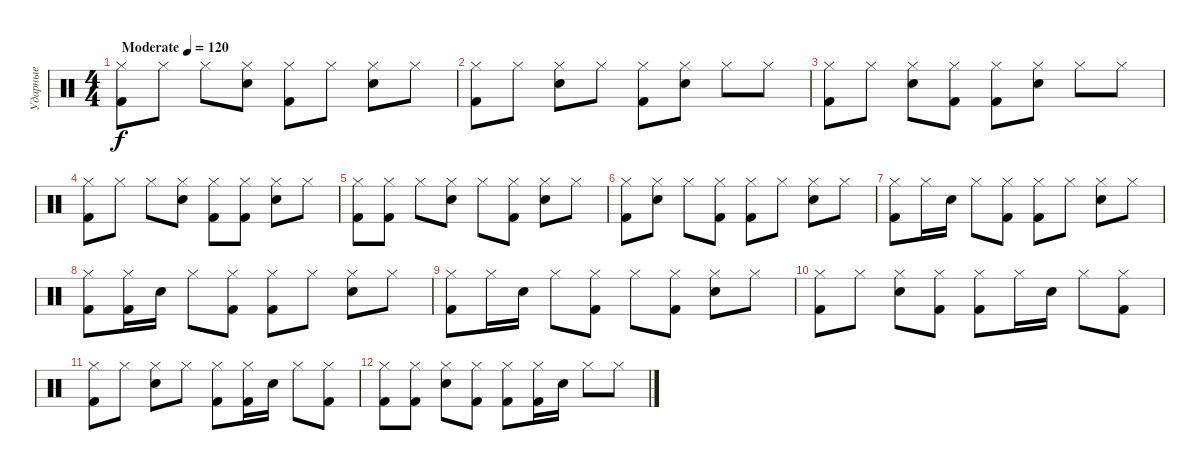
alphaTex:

\track ("Ударные" "Ударные") {instrument percussion}
\staff {score}
\articulation defaults
\ts (4 4)
\tempo (120 "Moderate")
\clef neutral
\ks c
("Hi-Hat (closed)" "Kick (hit) 2").8{dy f} "Hi-Hat (closed)".8 "Hi-Hat (closed)".8 ("Hi-Hat (closed)" "Electric Snare (hit)").8 ("Hi-Hat (closed)" "Kick (hit) 2").8 "Hi-Hat (closed)".8 ("Hi-Hat (closed)" "Electric Snare (hit)").8 "Hi-Hat (closed)".8 |
("Hi-Hat (closed)" "Kick (hit) 2").8 "Hi-Hat (closed)".8 ("Hi-Hat (closed)" "Electric Snare (hit)").8 "Hi-Hat (closed)".8 ("Hi-Hat (closed)" "Kick (hit) 2").8 ("Hi-Hat (closed)" "Electric Snare (hit)").8 "Hi-Hat (closed)".8 "Hi-Hat (closed)".8 |
("Hi-Hat (closed)" "Kick (hit) 2").8 "Hi-Hat (closed)".8 ("Hi-Hat (closed)" "Electric Snare (hit)").8 ("Hi-Hat (closed)" "Kick (hit) 2").8 ("Hi-Hat (closed)" "Kick (hit) 2").8 ("Hi-Hat (closed)" "Electric Snare (hit)").8 "Hi-Hat (closed)".8 "Hi-Hat (closed)".8 |
("Hi-Hat (closed)" "Kick (hit) 2").8 "Hi-Hat (closed)".8 "Hi-Hat (closed)".8 ("Hi-Hat (closed)" "Electric Snare (hit)").8 ("Hi-Hat (closed)" "Kick (hit) 2").8 ("Hi-Hat (closed)" "Kick (hit) 2").8 ("Hi-Hat (closed)" "Electric Snare (hit)").8 "Hi-Hat (closed)".8 |
("Hi-Hat (closed)" "Kick (hit) 2").8 ("Hi-Hat (closed)" "Kick (hit) 2").8 "Hi-Hat (closed)".8 ("Hi-Hat (closed)" "Electric Snare (hit)").8 "Hi-Hat (closed)".8 ("Hi-Hat (closed)" "Kick (hit) 2").8 ("Hi-Hat (closed)" "Electric Snare (hit)").8 "Hi-Hat (closed)".8 |
("Hi-Hat (closed)" "Kick (hit) 2").8 ("Hi-Hat (closed)" "Electric Snare (hit)").8 "Hi-Hat (closed)".8 ("Hi-Hat (closed)" "Kick (hit) 2").8 ("Hi-Hat (closed)" "Kick (hit) 2").8 "Hi-Hat (closed)".8 ("Hi-Hat (closed)" "Electric Snare (hit)").8 "Hi-Hat (closed)".8 |
("Hi-Hat (closed)" "Kick (hit) 2").8 "Hi-Hat (closed)".16 "Electric Snare (hit)".16 "Hi-Hat (closed)".8 ("Hi-Hat (closed)" "Kick (hit) 2").8 ("Kick (hit) 2" "Hi-Hat (closed)").8 "Hi-Hat (closed)".8 ("Hi-Hat (closed)" "Electric Snare (hit)").8 "Hi-Hat (closed)".8 |
("Hi-Hat (closed)" "Kick (hit) 2").8 ("Hi-Hat (closed)" "Kick (hit) 2").16 "Electric Snare (hit)".16 "Hi-Hat (closed)".8 ("Hi-Hat (closed)" "Kick (hit) 2").8 ("Kick (hit) 2" "Hi-Hat (closed)").8 "Hi-Hat (closed)".8 ("Hi-Hat (closed)" "Electric Snare (hit)").8 "Hi-Hat (closed)".8 |
("Hi-Hat (closed)" "Kick (hit) 2").8 "Hi-Hat (closed)".16 "Electric Snare (hit)".16 "Hi-Hat (closed)".8 ("Hi-Hat (closed)" "Kick (hit) 2").8 "Hi-Hat (closed)".8 ("Hi-Hat (closed)" "Kick (hit) 2").8 ("Hi-Hat (closed)" "Electric Snare (hit)").8 "Hi-Hat (closed)".8 |
("Kick (hit) 2" "Hi-Hat (closed)").8 "Hi-Hat (closed)".8 ("Hi-Hat (closed)" "Electric Snare (hit)").8 ("Kick (hit) 2" "Hi-Hat (closed)").8 ("Hi-Hat (closed)" "Kick (hit) 2").8 "Hi-Hat (closed)".16 "Electric Snare (hit)".16 "Hi-Hat (closed)".8 ("Hi-Hat (closed)" "Kick (hit) 2").8 |
("Kick (hit) 2" "Hi-Hat (closed)").8 "Hi-Hat (closed)".8 ("Hi-Hat (closed)" "Electric Snare (hit)").8 "Hi-Hat (closed)".8 ("Hi-Hat (closed)" "Kick (hit) 2").8 ("Hi-Hat (closed)" "Kick (hit) 2").16 "Electric Snare (hit)".16 "Hi-Hat (closed)".8 ("Hi-Hat (closed)" "Kick (hit) 2").8 |
("Kick (hit) 2" "Hi-Hat (closed)").8 ("Hi-Hat (closed)" "Kick (hit) 2").8 ("Hi-Hat (closed)" "Electric Snare (hit)").8 ("Hi-Hat (closed)" "Kick (hit) 2").8 ("Hi-Hat (closed)" "Kick (hit) 2").8 ("Hi-Hat (closed)" "Kick (hit) 2").16 "Electric Snare (hit)".16 "Hi-Hat (closed)".8 "Hi-Hat (closed)".8
